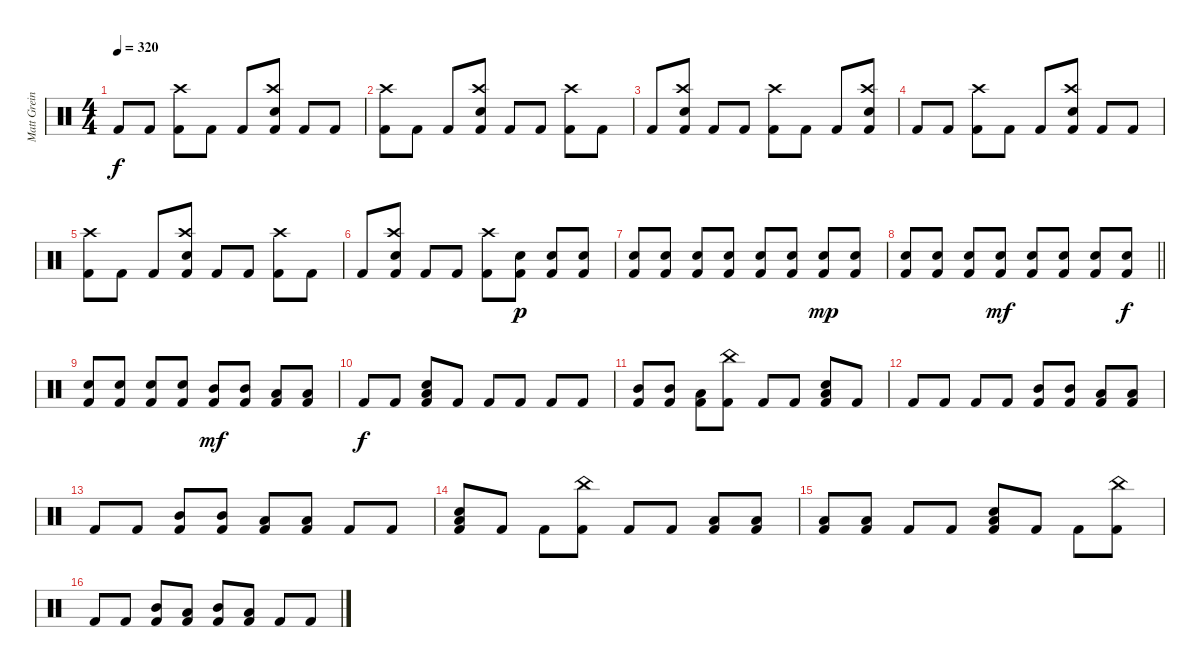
\track ("Matt Greiner (Drums)" "Matt Grein") {instrument percussion}
\staff {score}
\articulation defaults
\ts (4 4)
\tempo 320
\clef neutral
\ks c "Kick (hit) 2".8{dy f} "Kick (hit) 2".8
("Crash high (hit)" "Kick (hit) 2").8 "Kick (hit) 2".8 "Kick (hit) 2".8 ("Crash high (hit)" "Electric Snare (hit)" "Kick (hit) 2").8 "Kick (hit) 2".8 "Kick (hit) 2".8 |
("Crash high (hit)" "Kick (hit) 2").8 "Kick (hit) 2".8 "Kick (hit) 2".8 ("Crash high (hit)" "Electric Snare (hit)" "Kick (hit) 2").8 "Kick (hit) 2".8 "Kick (hit) 2".8 ("Crash high (hit)" "Kick (hit) 2").8 "Kick (hit) 2".8 |
"Kick (hit) 2".8 ("Crash high (hit)" "Electric Snare (hit)" "Kick (hit) 2").8 "Kick (hit) 2".8 "Kick (hit) 2".8 ("Crash high (hit)" "Kick (hit) 2").8 "Kick (hit) 2".8 "Kick (hit) 2".8 ("Crash high (hit)" "Electric Snare (hit)" "Kick (hit) 2").8 |
"Kick (hit) 2".8 "Kick (hit) 2".8 ("Crash high (hit)" "Kick (hit) 2").8 "Kick (hit) 2".8 "Kick (hit) 2".8 ("Crash high (hit)" "Electric Snare (hit)" "Kick (hit) 2").8 "Kick (hit) 2".8 "Kick (hit) 2".8 |
("Crash high (hit)" "Kick (hit) 2").8 "Kick (hit) 2".8 "Kick (hit) 2".8 ("Crash high (hit)" "Electric Snare (hit)" "Kick (hit) 2").8 "Kick (hit) 2".8 "Kick (hit) 2".8 ("Crash high (hit)" "Kick (hit) 2").8 "Kick (hit) 2".8 |
"Kick (hit) 2".8 ("Crash high (hit)" "Electric Snare (hit)" "Kick (hit) 2").8 "Kick (hit) 2".8 "Kick (hit) 2".8 ("Crash high (hit)" "Kick (hit) 2").8 ("Electric Snare (hit)" "Kick (hit) 2").8{dy p} ("Electric Snare (hit)" "Kick (hit) 2").8 ("Electric Snare (hit)" "Kick (hit) 2").8 |
("Electric Snare (hit)" "Kick (hit) 2").8 ("Electric Snare (hit)" "Kick (hit) 2").8 ("Electric Snare (hit)" "Kick (hit) 2").8 ("Electric Snare (hit)" "Kick (hit) 2").8 ("Electric Snare (hit)" "Kick (hit) 2").8 ("Electric Snare (hit)" "Kick (hit) 2").8 ("Electric Snare (hit)" "Kick (hit) 2").8{dy mp} ("Electric Snare (hit)" "Kick (hit) 2").8 |
\barLineRight lightlight
("Electric Snare (hit)" "Kick (hit) 2").8 ("Electric Snare (hit)" "Kick (hit) 2").8 ("Electric Snare (hit)" "Kick (hit) 2").8 ("Electric Snare (hit)" "Kick (hit) 2").8{dy mf} ("Electric Snare (hit)" "Kick (hit) 2").8 ("Electric Snare (hit)" "Kick (hit) 2").8 ("Electric Snare (hit)" "Kick (hit) 2").8 ("Electric Snare (hit)" "Kick (hit) 2").8{dy f} |
\section ("" "")
("Electric Snare (hit)" "Kick (hit) 2").8 ("Electric Snare (hit)" "Kick (hit) 2").8 ("Electric Snare (hit)" "Kick (hit) 2").8 ("Electric Snare (hit)" "Kick (hit) 2").8 ("Mid Tom (hit)" "Kick (hit) 2").8{dy mf} ("Mid Tom (hit)" "Kick (hit) 2").8 ("Low Tom (hit)" "Kick (hit) 2").8 ("Low Tom (hit)" "Kick (hit) 2").8 |
"Kick (hit) 2".8{dy f} "Kick (hit) 2".8 ("Low Floor Tom (hit)" "Electric Snare (hit)" "Kick (hit) 2").8 "Kick (hit) 2".8 "Kick (hit) 2".8 "Kick (hit) 2".8 "Kick (hit) 2".8 "Kick (hit) 2".8 |
("Mid Tom (hit)" "Kick (hit) 2").8 ("Mid Tom (hit)" "Kick (hit) 2").8 ("Low Tom (hit)" "Kick (hit) 2").8 ("China (hit)" "Kick (hit) 2").8 "Kick (hit) 2".8 "Kick (hit) 2".8 ("Low Floor Tom (hit)" "Electric Snare (hit)" "Kick (hit) 2").8 "Kick (hit) 2".8 |
"Kick (hit) 2".8 "Kick (hit) 2".8 "Kick (hit) 2".8 "Kick (hit) 2".8 ("Mid Tom (hit)" "Kick (hit) 2").8 ("Mid Tom (hit)" "Kick (hit) 2").8 ("Low Tom (hit)" "Kick (hit) 2").8 ("Low Floor Tom (hit)" "Kick (hit) 2").8 |
"Kick (hit) 2".8 "Kick (hit) 2".8 ("Mid Tom (hit)" "Kick (hit) 2").8 ("Mid Tom (hit)" "Kick (hit) 2").8 ("Low Tom (hit)" "Kick (hit) 2").8 ("Low Floor Tom (hit)" "Kick (hit) 2").8 "Kick (hit) 2".8 "Kick (hit) 2".8 |
("Low Floor Tom (hit)" "Electric Snare (hit)" "Kick (hit) 2").8 "Kick (hit) 2".8 "Kick (hit) 2".8 ("China (hit)" "Kick (hit) 2").8 "Kick (hit) 2".8 "Kick (hit) 2".8 ("Low Tom (hit)" "Kick (hit) 2").8 ("Low Tom (hit)" "Kick (hit) 2").8 |
("Low Floor Tom (hit)" "Kick (hit) 2").8 ("Low Floor Tom (hit)" "Kick (hit) 2").8 "Kick (hit) 2".8 "Kick (hit) 2".8 ("Low Floor Tom (hit)" "Electric Snare (hit)" "Kick (hit) 2").8 "Kick (hit) 2".8 "Kick (hit) 2".8 ("China (hit)" "Kick (hit) 2").8 |
"Kick (hit) 2".8 "Kick (hit) 2".8 ("Mid Tom (hit)" "Kick (hit) 2").8 ("Low Tom (hit)" "Kick (hit) 2").8 ("Mid Tom (hit)" "Kick (hit) 2").8 ("Low Floor Tom (hit)" "Kick (hit) 2").8 "Kick (hit) 2".8 "Kick (hit) 2".8
